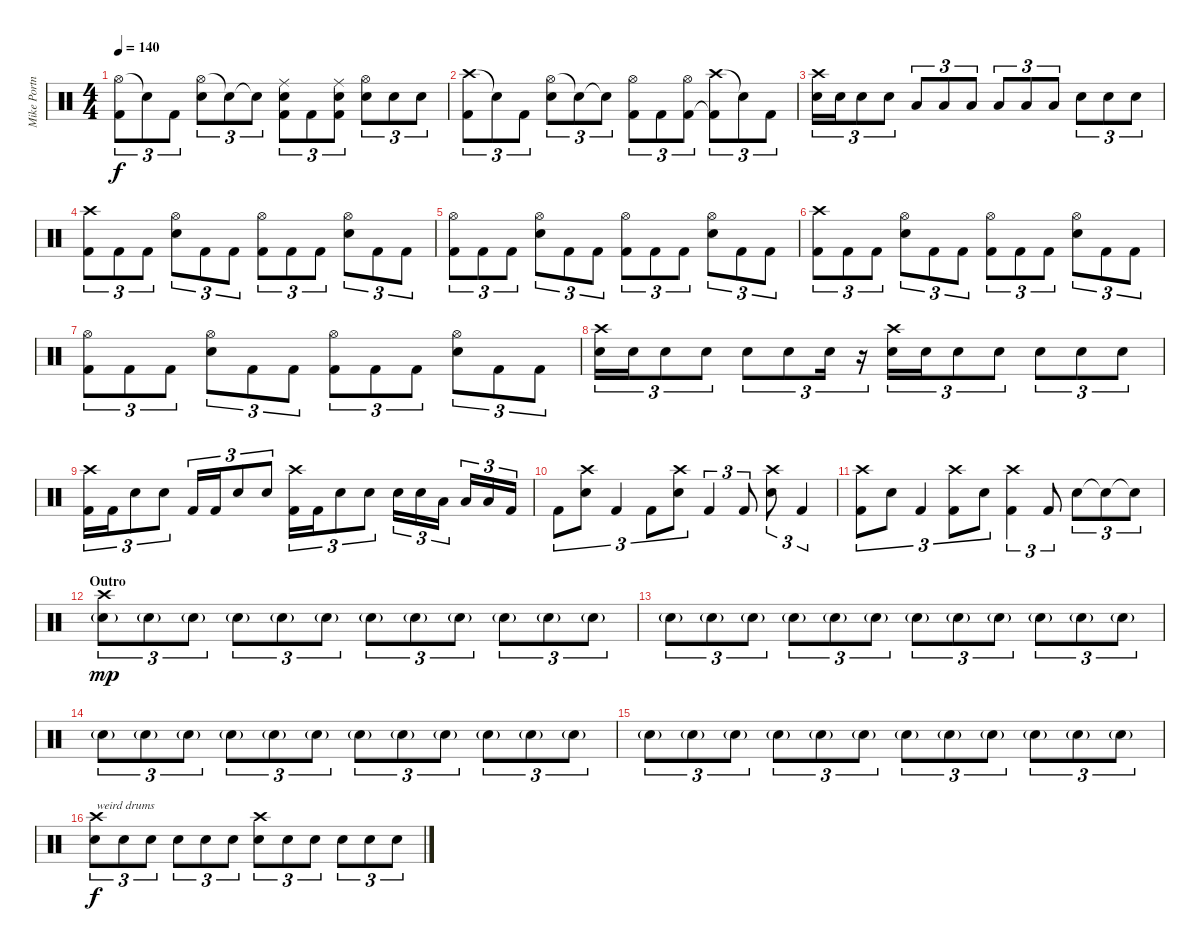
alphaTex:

\track ("Mike Portnoy Drums/Percussion" "Mike Portn") {instrument percussion}
\staff {score}
\articulation defaults
\ts (4 4)
\tempo 140
\clef neutral
\ks c
("Hi-Hat (open)" "Kick (hit) 2").8{tu (3 2) dy f} "Snare (hit)"{t}.8{tu (3 2)} "Kick (hit) 2".8{tu (3 2)} ("Hi-Hat (open)" "Snare (hit) 2").8{tu (3 2)} "Snare (hit)"{t}.8{tu (3 2)} "Snare (hit)"{t}.8{tu (3 2)} ("Ride (middle)" "Snare (hit) 2" "Kick (hit) 2").8{tu (3 2)} "Kick (hit) 2".8{tu (3 2)} ("Ride (middle)" "Snare (hit) 2" "Kick (hit) 2").8{tu (3 2)} ("Hi-Hat (open)" "Snare (hit) 2").8{tu (3 2)} "Snare (hit) 2".8{tu (3 2)} "Snare (hit) 2".8{tu (3 2)} |
("Crash high (hit)" "Kick (hit) 2").8{tu (3 2)} "Snare (hit)"{t}.8{tu (3 2)} "Kick (hit) 2".8{tu (3 2)} ("Hi-Hat (open)" "Snare (hit) 2").8{tu (3 2)} "Snare (hit)"{t}.8{tu (3 2)} "Snare (hit)"{t}.8{tu (3 2)} ("Hi-Hat (open)" "Kick (hit) 2").8{tu (3 2)} "Kick (hit) 2".8{tu (3 2)} ("Hi-Hat (open)" "Kick (hit) 2").8{tu (3 2)} ("Crash high (hit)" "Kick (hit) 2"{t}).8{tu (3 2)} "Snare (hit)"{t}.8{tu (3 2)} "Kick (hit) 2".8{tu (3 2)} |
("Crash high (hit)" "Snare (hit) 2").16{tu (3 2)} "Snare (hit) 2".16{tu (3 2)} "Snare (hit) 2".8{tu (3 2)} "Snare (hit) 2".8{tu (3 2)} "Low Tom (hit)".8{tu (3 2)} "Low Tom (hit)".8{tu (3 2)} "Low Tom (hit)".8{tu (3 2)} "Low Floor Tom (hit)".8{tu (3 2)} "Low Floor Tom (hit)".8{tu (3 2)} "Low Floor Tom (hit)".8{tu (3 2)} "Snare (hit) 2".8{tu (3 2)} "Snare (hit) 2".8{tu (3 2)} "Snare (hit) 2".8{tu (3 2)} |
("Crash high (hit)" "Kick (hit) 2").8{tu (3 2)} "Kick (hit) 2".8{tu (3 2)} "Kick (hit) 2".8{tu (3 2)} ("Hi-Hat (open)" "Snare (hit) 2").8{tu (3 2)} "Kick (hit) 2".8{tu (3 2)} "Kick (hit) 2".8{tu (3 2)} ("Hi-Hat (open)" "Kick (hit) 2").8{tu (3 2)} "Kick (hit) 2".8{tu (3 2)} "Kick (hit) 2".8{tu (3 2)} ("Hi-Hat (open)" "Snare (hit) 2").8{tu (3 2)} "Kick (hit) 2".8{tu (3 2)} "Kick (hit) 2".8{tu (3 2)} |
("Hi-Hat (open)" "Kick (hit) 2").8{tu (3 2)} "Kick (hit) 2".8{tu (3 2)} "Kick (hit) 2".8{tu (3 2)} ("Hi-Hat (open)" "Snare (hit) 2").8{tu (3 2)} "Kick (hit) 2".8{tu (3 2)} "Kick (hit) 2".8{tu (3 2)} ("Hi-Hat (open)" "Kick (hit) 2").8{tu (3 2)} "Kick (hit) 2".8{tu (3 2)} "Kick (hit) 2".8{tu (3 2)} ("Hi-Hat (open)" "Snare (hit) 2").8{tu (3 2)} "Kick (hit) 2".8{tu (3 2)} "Kick (hit) 2".8{tu (3 2)} |
("Crash high (hit)" "Kick (hit) 2").8{tu (3 2)} "Kick (hit) 2".8{tu (3 2)} "Kick (hit) 2".8{tu (3 2)} ("Hi-Hat (open)" "Snare (hit) 2").8{tu (3 2)} "Kick (hit) 2".8{tu (3 2)} "Kick (hit) 2".8{tu (3 2)} ("Hi-Hat (open)" "Kick (hit) 2").8{tu (3 2)} "Kick (hit) 2".8{tu (3 2)} "Kick (hit) 2".8{tu (3 2)} ("Hi-Hat (open)" "Snare (hit) 2").8{tu (3 2)} "Kick (hit) 2".8{tu (3 2)} "Kick (hit) 2".8{tu (3 2)} |
("Hi-Hat (open)" "Kick (hit) 2").8{tu (3 2)} "Kick (hit) 2".8{tu (3 2)} "Kick (hit) 2".8{tu (3 2)} ("Hi-Hat (open)" "Snare (hit) 2").8{tu (3 2)} "Kick (hit) 2".8{tu (3 2)} "Kick (hit) 2".8{tu (3 2)} ("Hi-Hat (open)" "Kick (hit) 2").8{tu (3 2)} "Kick (hit) 2".8{tu (3 2)} "Kick (hit) 2".8{tu (3 2)} ("Hi-Hat (open)" "Snare (hit) 2").8{tu (3 2)} "Kick (hit) 2".8{tu (3 2)} "Kick (hit) 2".8{tu (3 2)} |
("Crash high (hit)" "Snare (hit) 2").16{tu (3 2)} "Snare (hit) 2".16{tu (3 2)} "Snare (hit) 2".8{tu (3 2)} "Snare (hit) 2".8{tu (3 2)} "Snare (hit) 2".8{tu (3 2)} "Snare (hit) 2".8{tu (3 2)} "Snare (hit) 2".16{tu (3 2)} r.16{tu (3 2)} ("Crash high (hit)" "Snare (hit) 2").16{tu (3 2)} "Snare (hit) 2".16{tu (3 2)} "Snare (hit) 2".8{tu (3 2)} "Snare (hit) 2".8{tu (3 2)} "Snare (hit) 2".8{tu (3 2)} "Snare (hit) 2".8{tu (3 2)} "Snare (hit) 2".8{tu (3 2)} |
("Crash high (hit)" "Kick (hit) 2").16{tu (3 2)} "Kick (hit) 2".16{tu (3 2)} "Snare (hit) 2".8{tu (3 2)} "Snare (hit) 2".8{tu (3 2)} "Kick (hit) 2".16{tu (3 2)} "Kick (hit) 2".16{tu (3 2)} "Snare (hit) 2".8{tu (3 2)} "Snare (hit) 2".8{tu (3 2)} ("Crash high (hit)" "Kick (hit) 2").16{tu (3 2)} "Kick (hit) 2".16{tu (3 2)} "Snare (hit) 2".8{tu (3 2)} "Snare (hit) 2".8{tu (3 2)} "Snare (hit) 2".16{tu (3 2)} "Snare (hit) 2".16{tu (3 2)} "Low Tom (hit)".16{tu (3 2)} "Low Tom (hit)".16{tu (3 2)} "Low Floor Tom (hit)".16{tu (3 2)} "Kick (hit) 2".16{tu (3 2)} |
"Kick (hit) 2".8{tu (3 2)} ("Crash high (hit)" "Snare (hit) 2").8{tu (3 2)} "Kick (hit) 2".4{tu (3 2)} "Kick (hit) 2".8{tu (3 2)} ("Crash high (hit)" "Snare (hit) 2").8{tu (3 2)} "Kick (hit) 2".4{tu (3 2)} "Kick (hit) 2".8{tu (3 2)} ("Crash high (hit)" "Snare (hit) 2").8{tu (3 2)} "Kick (hit) 2".4{tu (3 2)} |
("Crash high (hit)" "Kick (hit) 2").8{tu (3 2)} "Snare (hit) 2".8{tu (3 2)} "Kick (hit) 2".4{tu (3 2)} ("Crash high (hit)" "Kick (hit) 2").8{tu (3 2)} "Snare (hit) 2".8{tu (3 2)} ("Crash high (hit)" "Kick (hit) 2").4{tu (3 2)} "Kick (hit) 2".8{tu (3 2)} "Snare (hit) 2".8{tu (3 2)} "Snare (hit)"{t}.8{tu (3 2)} "Snare (hit)"{t}.8{tu (3 2)} |
\section ("" "Outro")
("Snare (hit) 2"{g} "Crash high (hit)").8{tu (3 2) dy mp volume 8} "Snare (hit) 2"{g}.8{tu (3 2)} "Snare (hit) 2"{g}.8{tu (3 2)} "Snare (hit) 2"{g}.8{tu (3 2)} "Snare (hit) 2"{g}.8{tu (3 2)} "Snare (hit) 2"{g}.8{tu (3 2)} "Snare (hit) 2"{g}.8{tu (3 2)} "Snare (hit) 2"{g}.8{tu (3 2)} "Snare (hit) 2"{g}.8{tu (3 2)} "Snare (hit) 2"{g}.8{tu (3 2)} "Snare (hit) 2"{g}.8{tu (3 2)} "Snare (hit) 2"{g}.8{tu (3 2)} |
"Snare (hit) 2"{g}.8{tu (3 2) volume 13} "Snare (hit) 2"{g}.8{tu (3 2)} "Snare (hit) 2"{g}.8{tu (3 2)} "Snare (hit) 2"{g}.8{tu (3 2)} "Snare (hit) 2"{g}.8{tu (3 2)} "Snare (hit) 2"{g}.8{tu (3 2)} "Snare (hit) 2"{g}.8{tu (3 2)} "Snare (hit) 2"{g}.8{tu (3 2)} "Snare (hit) 2"{g}.8{tu (3 2)} "Snare (hit) 2"{g}.8{tu (3 2)} "Snare (hit) 2"{g}.8{tu (3 2)} "Snare (hit) 2"{g}.8{tu (3 2)} |
"Snare (hit) 2"{g}.8{tu (3 2)} "Snare (hit) 2"{g}.8{tu (3 2)} "Snare (hit) 2"{g}.8{tu (3 2)} "Snare (hit) 2"{g}.8{tu (3 2)} "Snare (hit) 2"{g}.8{tu (3 2)} "Snare (hit) 2"{g}.8{tu (3 2)} "Snare (hit) 2"{g}.8{tu (3 2)} "Snare (hit) 2"{g}.8{tu (3 2)} "Snare (hit) 2"{g}.8{tu (3 2)} "Snare (hit) 2"{g}.8{tu (3 2)} "Snare (hit) 2"{g}.8{tu (3 2)} "Snare (hit) 2"{g}.8{tu (3 2)} |
"Snare (hit) 2"{g}.8{tu (3 2)} "Snare (hit) 2"{g}.8{tu (3 2)} "Snare (hit) 2"{g}.8{tu (3 2)} "Snare (hit) 2"{g}.8{tu (3 2)} "Snare (hit) 2"{g}.8{tu (3 2)} "Snare (hit) 2"{g}.8{tu (3 2)} "Snare (hit) 2"{g}.8{tu (3 2)} "Snare (hit) 2"{g}.8{tu (3 2)} "Snare (hit) 2"{g}.8{tu (3 2)} "Snare (hit) 2"{g}.8{tu (3 2)} "Snare (hit) 2"{g}.8{tu (3 2)} "Snare (hit) 2"{g}.8{tu (3 2)} |
("Snare (hit) 2" "Crash high (hit)").8{tu (3 2) txt "weird drums" dy f volume 11} "Snare (hit) 2".8{tu (3 2)} "Snare (hit) 2".8{tu (3 2)} "Snare (hit) 2".8{tu (3 2)} "Snare (hit) 2".8{tu (3 2)} "Snare (hit) 2".8{tu (3 2)} ("Snare (hit) 2" "Crash high (hit)").8{tu (3 2)} "Snare (hit) 2".8{tu (3 2)} "Snare (hit) 2".8{tu (3 2)} "Snare (hit) 2".8{tu (3 2)} "Snare (hit) 2".8{tu (3 2)} "Snare (hit) 2".8{tu (3 2)}
